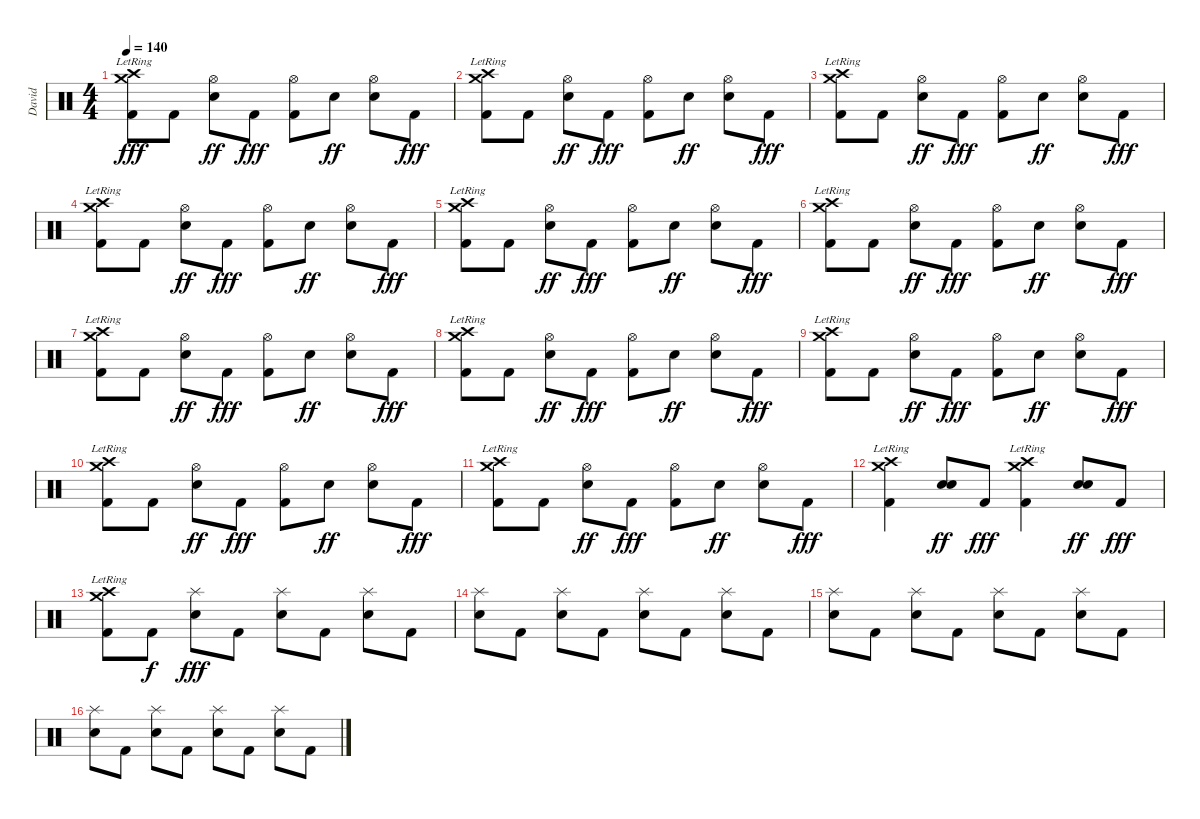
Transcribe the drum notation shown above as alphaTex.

\track ("David " "David ") {instrument percussion}
\staff {score}
\articulation defaults
\ts (4 4)
\tempo 140
\clef neutral
\ks c
("Crash high (hit)"{lr} "Crash medium (hit)"{lr} "Kick (hit) 2").8{dy fff} "Kick (hit) 2".8 ("Hi-Hat (open)" "Electric Snare (hit)").8{dy ff} "Kick (hit) 2".8{dy fff} ("Hi-Hat (open)" "Kick (hit) 2").8 "Electric Snare (hit)".8{dy ff} ("Hi-Hat (open)" "Electric Snare (hit)").8 "Kick (hit) 2".8{dy fff} |
("Crash high (hit)"{lr} "Crash medium (hit)"{lr} "Kick (hit) 2").8 "Kick (hit) 2".8 ("Hi-Hat (open)" "Electric Snare (hit)").8{dy ff} "Kick (hit) 2".8{dy fff} ("Hi-Hat (open)" "Kick (hit) 2").8 "Electric Snare (hit)".8{dy ff} ("Hi-Hat (open)" "Electric Snare (hit)").8 "Kick (hit) 2".8{dy fff} |
("Crash high (hit)"{lr} "Crash medium (hit)"{lr} "Kick (hit) 2").8 "Kick (hit) 2".8 ("Hi-Hat (open)" "Electric Snare (hit)").8{dy ff} "Kick (hit) 2".8{dy fff} ("Hi-Hat (open)" "Kick (hit) 2").8 "Electric Snare (hit)".8{dy ff} ("Hi-Hat (open)" "Electric Snare (hit)").8 "Kick (hit) 2".8{dy fff} |
("Crash high (hit)"{lr} "Crash medium (hit)"{lr} "Kick (hit) 2").8 "Kick (hit) 2".8 ("Hi-Hat (open)" "Electric Snare (hit)").8{dy ff} "Kick (hit) 2".8{dy fff} ("Hi-Hat (open)" "Kick (hit) 2").8 "Electric Snare (hit)".8{dy ff} ("Hi-Hat (open)" "Electric Snare (hit)").8 "Kick (hit) 2".8{dy fff} |
("Crash high (hit)"{lr} "Crash medium (hit)"{lr} "Kick (hit) 2").8 "Kick (hit) 2".8 ("Hi-Hat (open)" "Electric Snare (hit)").8{dy ff} "Kick (hit) 2".8{dy fff} ("Hi-Hat (open)" "Kick (hit) 2").8 "Electric Snare (hit)".8{dy ff} ("Hi-Hat (open)" "Electric Snare (hit)").8 "Kick (hit) 2".8{dy fff} |
("Crash high (hit)"{lr} "Crash medium (hit)"{lr} "Kick (hit) 2").8 "Kick (hit) 2".8 ("Hi-Hat (open)" "Electric Snare (hit)").8{dy ff} "Kick (hit) 2".8{dy fff} ("Hi-Hat (open)" "Kick (hit) 2").8 "Electric Snare (hit)".8{dy ff} ("Hi-Hat (open)" "Electric Snare (hit)").8 "Kick (hit) 2".8{dy fff} |
("Crash high (hit)"{lr} "Crash medium (hit)"{lr} "Kick (hit) 2").8 "Kick (hit) 2".8 ("Hi-Hat (open)" "Electric Snare (hit)").8{dy ff} "Kick (hit) 2".8{dy fff} ("Hi-Hat (open)" "Kick (hit) 2").8 "Electric Snare (hit)".8{dy ff} ("Hi-Hat (open)" "Electric Snare (hit)").8 "Kick (hit) 2".8{dy fff} |
("Crash high (hit)"{lr} "Crash medium (hit)"{lr} "Kick (hit) 2").8 "Kick (hit) 2".8 ("Hi-Hat (open)" "Electric Snare (hit)").8{dy ff} "Kick (hit) 2".8{dy fff} ("Hi-Hat (open)" "Kick (hit) 2").8 "Electric Snare (hit)".8{dy ff} ("Hi-Hat (open)" "Electric Snare (hit)").8 "Kick (hit) 2".8{dy fff} |
("Crash high (hit)"{lr} "Crash medium (hit)"{lr} "Kick (hit) 2").8 "Kick (hit) 2".8 ("Hi-Hat (open)" "Electric Snare (hit)").8{dy ff} "Kick (hit) 2".8{dy fff} ("Hi-Hat (open)" "Kick (hit) 2").8 "Electric Snare (hit)".8{dy ff} ("Hi-Hat (open)" "Electric Snare (hit)").8 "Kick (hit) 2".8{dy fff} |
("Crash high (hit)"{lr} "Crash medium (hit)"{lr} "Kick (hit) 2").8 "Kick (hit) 2".8 ("Hi-Hat (open)" "Electric Snare (hit)").8{dy ff} "Kick (hit) 2".8{dy fff} ("Hi-Hat (open)" "Kick (hit) 2").8 "Electric Snare (hit)".8{dy ff} ("Hi-Hat (open)" "Electric Snare (hit)").8 "Kick (hit) 2".8{dy fff} |
("Crash high (hit)"{lr} "Crash medium (hit)"{lr} "Kick (hit) 2").8 "Kick (hit) 2".8 ("Hi-Hat (open)" "Electric Snare (hit)").8{dy ff} "Kick (hit) 2".8{dy fff} ("Hi-Hat (open)" "Kick (hit) 2").8 "Electric Snare (hit)".8{dy ff} ("Hi-Hat (open)" "Electric Snare (hit)").8 "Kick (hit) 2".8{dy fff} |
("Crash high (hit)"{lr} "Crash medium (hit)"{lr} "Kick (hit) 2").4 ("Electric Snare (hit)" "Electric Snare (hit)").8{dy ff} "Kick (hit) 2".8{dy fff} ("Crash high (hit)"{lr} "Crash medium (hit)"{lr} "Kick (hit) 2").4 ("Electric Snare (hit)" "Electric Snare (hit)").8{dy ff} "Kick (hit) 2".8{dy fff} |
("Crash high (hit)"{lr} "Crash medium (hit)"{lr} "Kick (hit) 2").8 "Kick (hit) 2".8{dy f} ("Electric Snare (hit)" "Splash (hit)").8{dy fff} "Kick (hit) 2".8 ("Electric Snare (hit)" "Splash (hit)").8 "Kick (hit) 2".8 ("Electric Snare (hit)" "Splash (hit)").8 "Kick (hit) 2".8 |
("Electric Snare (hit)" "Splash (hit)").8 "Kick (hit) 2".8 ("Electric Snare (hit)" "Splash (hit)").8 "Kick (hit) 2".8 ("Electric Snare (hit)" "Splash (hit)").8 "Kick (hit) 2".8 ("Electric Snare (hit)" "Splash (hit)").8 "Kick (hit) 2".8 |
("Electric Snare (hit)" "Splash (hit)").8 "Kick (hit) 2".8 ("Electric Snare (hit)" "Splash (hit)").8 "Kick (hit) 2".8 ("Electric Snare (hit)" "Splash (hit)").8 "Kick (hit) 2".8 ("Electric Snare (hit)" "Splash (hit)").8 "Kick (hit) 2".8 |
("Electric Snare (hit)" "Splash (hit)").8 "Kick (hit) 2".8 ("Electric Snare (hit)" "Splash (hit)").8 "Kick (hit) 2".8 ("Electric Snare (hit)" "Splash (hit)").8 "Kick (hit) 2".8 ("Electric Snare (hit)" "Splash (hit)").8 "Kick (hit) 2".8
